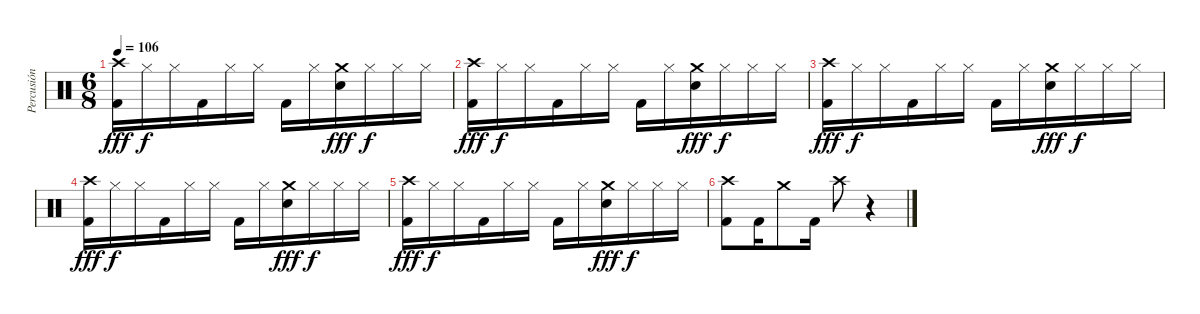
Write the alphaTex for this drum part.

\track ("Percusión" "Percusión") {instrument percussion}
\staff {score}
\articulation defaults
\ts (6 8)
\tempo 106
\clef neutral
\ks c
("Kick (hit) 2" "Crash high (hit)").16{dy fff} "Hi-Hat (closed)".16{dy f} "Hi-Hat (closed)".16 "Kick (hit) 2".16 "Hi-Hat (closed)".16 "Hi-Hat (closed)".16 "Kick (hit) 2".16 "Hi-Hat (closed)".16 ("Snare (hit) 2" "Crash medium (hit)").16{dy fff} "Hi-Hat (closed)".16{dy f} "Hi-Hat (closed)".16 "Hi-Hat (closed)".16 |
("Kick (hit) 2" "Crash high (hit)").16{dy fff} "Hi-Hat (closed)".16{dy f} "Hi-Hat (closed)".16 "Kick (hit) 2".16 "Hi-Hat (closed)".16 "Hi-Hat (closed)".16 "Kick (hit) 2".16 "Hi-Hat (closed)".16 ("Snare (hit) 2" "Crash medium (hit)").16{dy fff} "Hi-Hat (closed)".16{dy f} "Hi-Hat (closed)".16 "Hi-Hat (closed)".16 |
("Kick (hit) 2" "Crash high (hit)").16{dy fff} "Hi-Hat (closed)".16{dy f} "Hi-Hat (closed)".16 "Kick (hit) 2".16 "Hi-Hat (closed)".16 "Hi-Hat (closed)".16 "Kick (hit) 2".16 "Hi-Hat (closed)".16 ("Snare (hit) 2" "Crash medium (hit)").16{dy fff} "Hi-Hat (closed)".16{dy f} "Hi-Hat (closed)".16 "Hi-Hat (closed)".16 |
("Kick (hit) 2" "Crash high (hit)").16{dy fff} "Hi-Hat (closed)".16{dy f} "Hi-Hat (closed)".16 "Kick (hit) 2".16 "Hi-Hat (closed)".16 "Hi-Hat (closed)".16 "Kick (hit) 2".16 "Hi-Hat (closed)".16 ("Snare (hit) 2" "Crash medium (hit)").16{dy fff} "Hi-Hat (closed)".16{dy f} "Hi-Hat (closed)".16 "Hi-Hat (closed)".16 |
("Kick (hit) 2" "Crash high (hit)").16{dy fff} "Hi-Hat (closed)".16{dy f} "Hi-Hat (closed)".16 "Kick (hit) 2".16 "Hi-Hat (closed)".16 "Hi-Hat (closed)".16 "Kick (hit) 2".16 "Hi-Hat (closed)".16 ("Snare (hit) 2" "Crash medium (hit)").16{dy fff} "Hi-Hat (closed)".16{dy f} "Hi-Hat (closed)".16 "Hi-Hat (closed)".16 |
("Kick (hit) 2" "Crash high (hit)").8 "Kick (hit) 2".16 "Crash medium (hit)".8 "Kick (hit) 2".16 "Crash high (hit)".8 r.4
